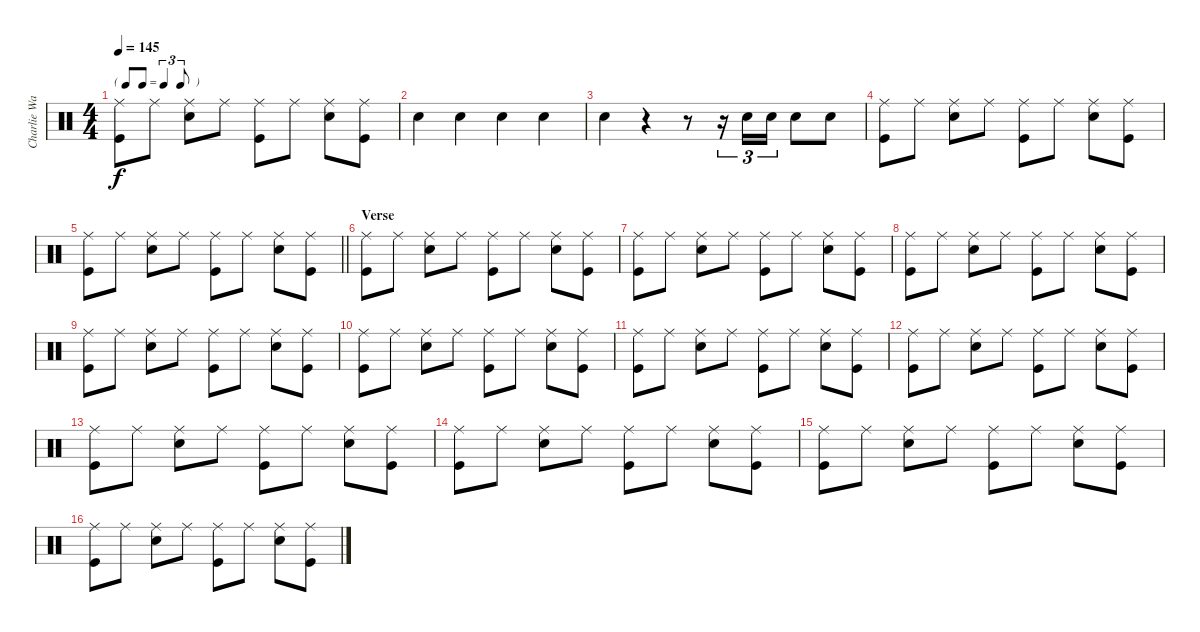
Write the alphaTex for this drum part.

\track ("Charlie Watts" "Charlie Wa") {instrument percussion}
\staff {score}
\articulation defaults
\ts (4 4)
\tf triplet8th
\tempo 145
\clef neutral
\ks c
("Ride (middle)" "Kick (hit)").8{dy f} "Ride (middle)".8 ("Ride (middle)" "Snare (hit) 2").8 "Ride (middle)".8 ("Ride (middle)" "Kick (hit)").8 "Ride (middle)".8 ("Ride (middle)" "Snare (hit) 2").8 ("Ride (middle)" "Kick (hit)").8 |
"Snare (hit) 2".4 "Snare (hit) 2".4 "Snare (hit) 2".4 "Snare (hit) 2".4 |
"Snare (hit) 2".4 r.4 r.8 r.16{tu (3 2)} "Snare (hit) 2".16{tu (3 2)} "Snare (hit) 2".16{tu (3 2)} "Snare (hit) 2".8 "Snare (hit) 2".8 |
("Ride (middle)" "Kick (hit)").8 "Ride (middle)".8 ("Ride (middle)" "Snare (hit) 2").8 "Ride (middle)".8 ("Ride (middle)" "Kick (hit)").8 "Ride (middle)".8 ("Ride (middle)" "Snare (hit) 2").8 ("Ride (middle)" "Kick (hit)").8 |
\barLineRight lightlight
("Ride (middle)" "Kick (hit)").8 "Ride (middle)".8 ("Ride (middle)" "Snare (hit) 2").8 "Ride (middle)".8 ("Ride (middle)" "Kick (hit)").8 "Ride (middle)".8 ("Ride (middle)" "Snare (hit) 2").8 ("Ride (middle)" "Kick (hit)").8 |
\section ("" "Verse")
("Ride (middle)" "Kick (hit)").8 "Ride (middle)".8 ("Ride (middle)" "Snare (hit) 2").8 "Ride (middle)".8 ("Ride (middle)" "Kick (hit)").8 "Ride (middle)".8 ("Ride (middle)" "Snare (hit) 2").8 ("Ride (middle)" "Kick (hit)").8 |
("Ride (middle)" "Kick (hit)").8 "Ride (middle)".8 ("Ride (middle)" "Snare (hit) 2").8 "Ride (middle)".8 ("Ride (middle)" "Kick (hit)").8 "Ride (middle)".8 ("Ride (middle)" "Snare (hit) 2").8 ("Ride (middle)" "Kick (hit)").8 |
("Ride (middle)" "Kick (hit)").8 "Ride (middle)".8 ("Ride (middle)" "Snare (hit) 2").8 "Ride (middle)".8 ("Ride (middle)" "Kick (hit)").8 "Ride (middle)".8 ("Ride (middle)" "Snare (hit) 2").8 ("Ride (middle)" "Kick (hit)").8 |
("Ride (middle)" "Kick (hit)").8 "Ride (middle)".8 ("Ride (middle)" "Snare (hit) 2").8 "Ride (middle)".8 ("Ride (middle)" "Kick (hit)").8 "Ride (middle)".8 ("Ride (middle)" "Snare (hit) 2").8 ("Ride (middle)" "Kick (hit)").8 |
("Ride (middle)" "Kick (hit)").8 "Ride (middle)".8 ("Ride (middle)" "Snare (hit) 2").8 "Ride (middle)".8 ("Ride (middle)" "Kick (hit)").8 "Ride (middle)".8 ("Ride (middle)" "Snare (hit) 2").8 ("Ride (middle)" "Kick (hit)").8 |
("Ride (middle)" "Kick (hit)").8 "Ride (middle)".8 ("Ride (middle)" "Snare (hit) 2").8 "Ride (middle)".8 ("Ride (middle)" "Kick (hit)").8 "Ride (middle)".8 ("Ride (middle)" "Snare (hit) 2").8 ("Ride (middle)" "Kick (hit)").8 |
("Ride (middle)" "Kick (hit)").8 "Ride (middle)".8 ("Ride (middle)" "Snare (hit) 2").8 "Ride (middle)".8 ("Ride (middle)" "Kick (hit)").8 "Ride (middle)".8 ("Ride (middle)" "Snare (hit) 2").8 ("Ride (middle)" "Kick (hit)").8 |
("Ride (middle)" "Kick (hit)").8 "Ride (middle)".8 ("Ride (middle)" "Snare (hit) 2").8 "Ride (middle)".8 ("Ride (middle)" "Kick (hit)").8 "Ride (middle)".8 ("Ride (middle)" "Snare (hit) 2").8 ("Ride (middle)" "Kick (hit)").8 |
("Ride (middle)" "Kick (hit)").8 "Ride (middle)".8 ("Ride (middle)" "Snare (hit) 2").8 "Ride (middle)".8 ("Ride (middle)" "Kick (hit)").8 "Ride (middle)".8 ("Ride (middle)" "Snare (hit) 2").8 ("Ride (middle)" "Kick (hit)").8 |
("Ride (middle)" "Kick (hit)").8 "Ride (middle)".8 ("Ride (middle)" "Snare (hit) 2").8 "Ride (middle)".8 ("Ride (middle)" "Kick (hit)").8 "Ride (middle)".8 ("Ride (middle)" "Snare (hit) 2").8 ("Ride (middle)" "Kick (hit)").8 |
("Ride (middle)" "Kick (hit)").8 "Ride (middle)".8 ("Ride (middle)" "Snare (hit) 2").8 "Ride (middle)".8 ("Ride (middle)" "Kick (hit)").8 "Ride (middle)".8 ("Ride (middle)" "Snare (hit) 2").8 ("Ride (middle)" "Kick (hit)").8
